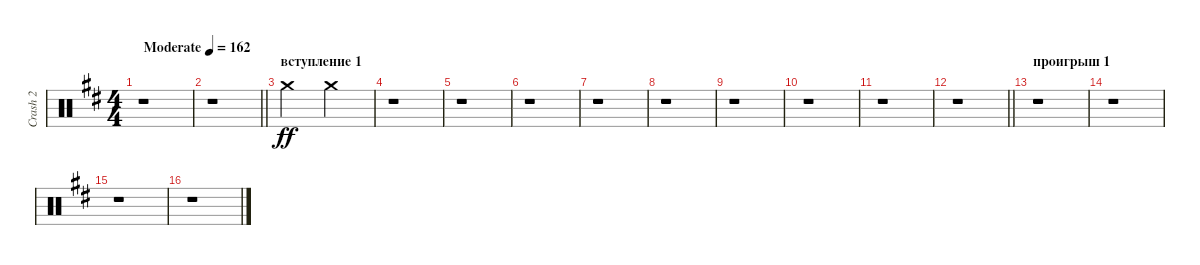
\track ("Сrash 2" "Сrash 2") {instrument percussion}
\staff {score}
\articulation defaults
\ts (4 4)
\tempo (162 "Moderate")
\clef neutral
\ks bminor
r.1{dy ff} |
\barLineRight lightlight
r.1 |
\section ("" "вступление 1")
"Crash medium (hit)".2 "Crash medium (hit)".2 |
r.1 |
r.1 |
r.1 |
r.1 |
r.1 |
r.1 |
r.1 |
r.1 |
\barLineRight lightlight
r.1 |
\section ("" "проигрыш 1")
r.1 |
r.1 |
r.1 |
r.1
